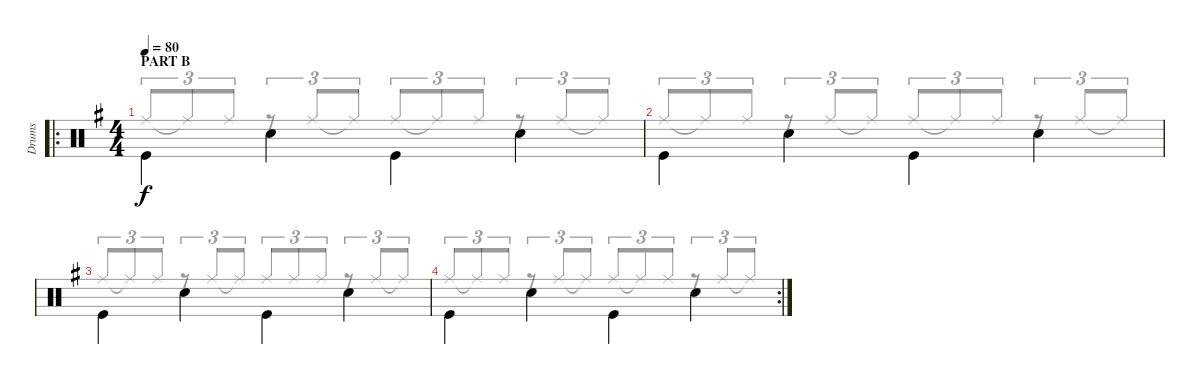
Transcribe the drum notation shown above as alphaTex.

\track ("Drums" "Drums") {instrument percussion}
\staff {score}
\articulation defaults
\voice
\ro
\ts (4 4)
\section ("" "PART B")
\tempo 80
\clef neutral
\ks g "Kick (hit)".4{dy f beam Down} "Snare (hit) 2".4{beam Down} "Kick (hit)".4{beam Down} "Snare (hit) 2".4{beam Down}
|
"Kick (hit)".4{beam Down} "Snare (hit) 2".4{beam Down} "Kick (hit)".4{beam Down} "Snare (hit) 2".4{beam Down} |
"Kick (hit)".4{beam Down} "Snare (hit) 2".4{beam Down} "Kick (hit)".4{beam Down} "Snare (hit) 2".4{beam Down} |
\rc 2 "Kick (hit)".4{beam Down} "Snare (hit) 2".4{beam Down} "Kick (hit)".4{beam Down} "Snare (hit) 2".4{beam Down}
\voice
\clef neutral
\ottava regular
\simile none
\ks g "Ride (middle)".8{tu (3 2) dy f beam Up} "Ride (middle)"{t}.8{tu (3 2) beam Up} "Ride (middle)".8{tu (3 2) beam Up}
r.8{tu (3 2) beam Up} "Ride (middle)".8{tu (3 2) beam Up} "Ride (middle)"{t}.8{tu (3 2) beam Up} "Ride (middle)".8{tu (3 2) beam Up} "Ride (middle)"{t}.8{tu (3 2) beam Up} "Ride (middle)".8{tu (3 2) beam Up} r.8{tu (3 2) beam Up} "Ride (middle)".8{tu (3 2) beam Up} "Ride (middle)"{t}.8{tu (3 2) beam Up} |
"Ride (middle)".8{tu (3 2) beam Up} "Ride (middle)"{t}.8{tu (3 2) beam Up} "Ride (middle)".8{tu (3 2) beam Up} r.8{tu (3 2) beam Up} "Ride (middle)".8{tu (3 2) beam Up} "Ride (middle)"{t}.8{tu (3 2) beam Up} "Ride (middle)".8{tu (3 2) beam Up} "Ride (middle)"{t}.8{tu (3 2) beam Up} "Ride (middle)".8{tu (3 2) beam Up} r.8{tu (3 2) beam Up} "Ride (middle)".8{tu (3 2) beam Up} "Ride (middle)"{t}.8{tu (3 2) beam Up} |
"Ride (middle)".8{tu (3 2) beam Up} "Ride (middle)"{t}.8{tu (3 2) beam Up} "Ride (middle)".8{tu (3 2) beam Up} r.8{tu (3 2) beam Up} "Ride (middle)".8{tu (3 2) beam Up} "Ride (middle)"{t}.8{tu (3 2) beam Up} "Ride (middle)".8{tu (3 2) beam Up} "Ride (middle)".8{tu (3 2) beam Up} "Ride (middle)".8{tu (3 2) beam Up} r.8{tu (3 2) beam Up} "Ride (middle)".8{tu (3 2) beam Up} "Ride (middle)"{t}.8{tu (3 2) beam Up} |
"Ride (middle)".8{tu (3 2) beam Up} "Ride (middle)"{t}.8{tu (3 2) beam Up} "Ride (middle)".8{tu (3 2) beam Up} r.8{tu (3 2) beam Up} "Ride (middle)".8{tu (3 2) beam Up} "Ride (middle)"{t}.8{tu (3 2) beam Up} "Ride (middle)".8{tu (3 2) beam Up} "Ride (middle)"{t}.8{tu (3 2) beam Up} "Ride (middle)".8{tu (3 2) beam Up} r.8{tu (3 2) beam Up} "Ride (middle)".8{tu (3 2) beam Up} "Ride (middle)"{t}.8{tu (3 2) beam Up}
